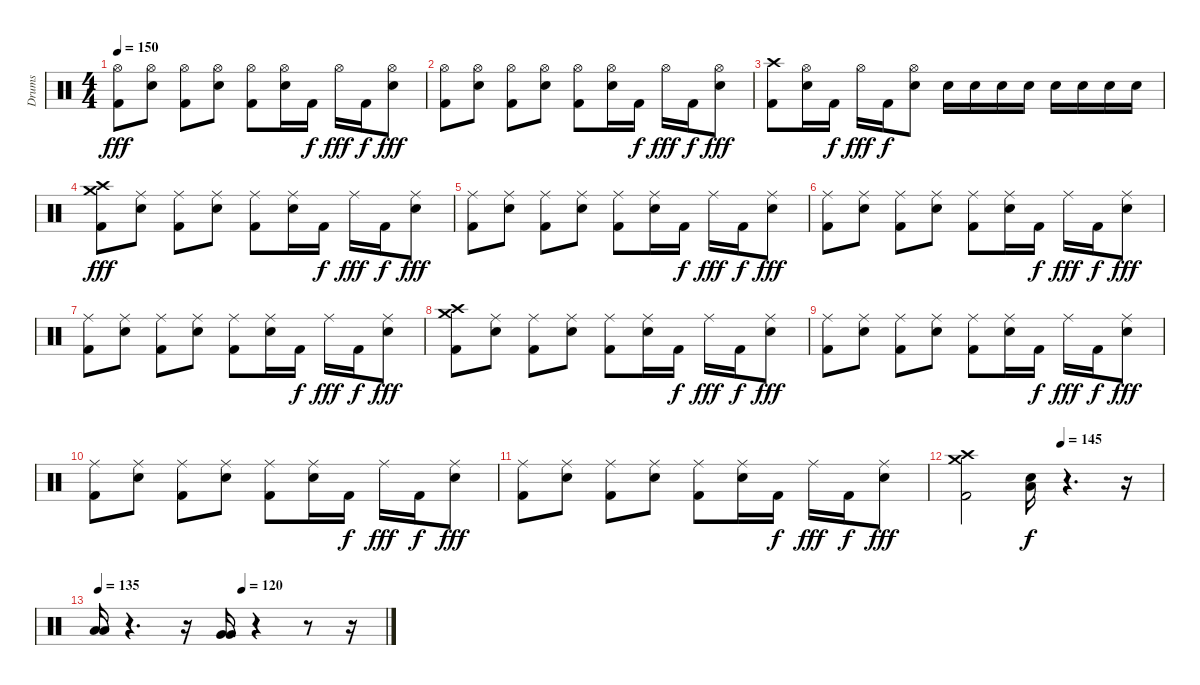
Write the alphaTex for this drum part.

\track ("Drums" "Drums") {instrument percussion}
\staff {score}
\articulation defaults
\ts (4 4)
\tempo 150
\clef neutral
\ks c
("Hi-Hat (open)" "Kick (hit) 2").8{dy fff} ("Hi-Hat (open)" "Electric Snare (hit)").8 ("Hi-Hat (open)" "Kick (hit) 2").8 ("Hi-Hat (open)" "Electric Snare (hit)").8 ("Hi-Hat (open)" "Kick (hit) 2").8 ("Hi-Hat (open)" "Electric Snare (hit)").16 "Kick (hit) 2".16{dy f} "Hi-Hat (open)".16{dy fff} "Kick (hit) 2".16{dy f} ("Hi-Hat (open)" "Electric Snare (hit)").8{dy fff} |
("Hi-Hat (open)" "Kick (hit) 2").8 ("Hi-Hat (open)" "Electric Snare (hit)").8 ("Hi-Hat (open)" "Kick (hit) 2").8 ("Hi-Hat (open)" "Electric Snare (hit)").8 ("Hi-Hat (open)" "Kick (hit) 2").8 ("Hi-Hat (open)" "Electric Snare (hit)").16 "Kick (hit) 2".16{dy f} "Hi-Hat (open)".16{dy fff} "Kick (hit) 2".16{dy f} ("Hi-Hat (open)" "Electric Snare (hit)").8{dy fff} |
("Crash high (hit)" "Kick (hit) 2").8 ("Hi-Hat (open)" "Electric Snare (hit)").16 "Kick (hit) 2".16{dy f} "Hi-Hat (open)".16{dy fff} "Kick (hit) 2".16{dy f} ("Hi-Hat (open)" "Electric Snare (hit)").8 "Electric Snare (hit)".16 "Electric Snare (hit)".16 "Electric Snare (hit)".16 "Electric Snare (hit)".16 "Electric Snare (hit)".16 "Electric Snare (hit)".16 "Electric Snare (hit)".16 "Electric Snare (hit)".16 |
("Crash high (hit)" "Crash medium (hit)" "Kick (hit) 2").8{dy fff} ("Ride (middle)" "Electric Snare (hit)").8 ("Ride (middle)" "Kick (hit) 2").8 ("Ride (middle)" "Electric Snare (hit)").8 ("Ride (middle)" "Kick (hit) 2").8 ("Ride (middle)" "Electric Snare (hit)").16 "Kick (hit) 2".16{dy f} "Ride (middle)".16{dy fff} "Kick (hit) 2".16{dy f} ("Ride (middle)" "Electric Snare (hit)").8{dy fff} |
("Ride (middle)" "Kick (hit) 2").8 ("Ride (middle)" "Electric Snare (hit)").8 ("Ride (middle)" "Kick (hit) 2").8 ("Ride (middle)" "Electric Snare (hit)").8 ("Ride (middle)" "Kick (hit) 2").8 ("Ride (middle)" "Electric Snare (hit)").16 "Kick (hit) 2".16{dy f} "Ride (middle)".16{dy fff} "Kick (hit) 2".16{dy f} ("Ride (middle)" "Electric Snare (hit)").8{dy fff} |
("Ride (middle)" "Kick (hit) 2").8 ("Ride (middle)" "Electric Snare (hit)").8 ("Ride (middle)" "Kick (hit) 2").8 ("Ride (middle)" "Electric Snare (hit)").8 ("Ride (middle)" "Kick (hit) 2").8 ("Ride (middle)" "Electric Snare (hit)").16 "Kick (hit) 2".16{dy f} "Ride (middle)".16{dy fff} "Kick (hit) 2".16{dy f} ("Ride (middle)" "Electric Snare (hit)").8{dy fff} |
("Ride (middle)" "Kick (hit) 2").8 ("Ride (middle)" "Electric Snare (hit)").8 ("Ride (middle)" "Kick (hit) 2").8 ("Ride (middle)" "Electric Snare (hit)").8 ("Ride (middle)" "Kick (hit) 2").8 ("Ride (middle)" "Electric Snare (hit)").16 "Kick (hit) 2".16{dy f} "Ride (middle)".16{dy fff} "Kick (hit) 2".16{dy f} ("Ride (middle)" "Electric Snare (hit)").8{dy fff} |
("Crash high (hit)" "Crash medium (hit)" "Kick (hit) 2").8 ("Ride (middle)" "Electric Snare (hit)").8 ("Ride (middle)" "Kick (hit) 2").8 ("Ride (middle)" "Electric Snare (hit)").8 ("Ride (middle)" "Kick (hit) 2").8 ("Ride (middle)" "Electric Snare (hit)").16 "Kick (hit) 2".16{dy f} "Ride (middle)".16{dy fff} "Kick (hit) 2".16{dy f} ("Ride (middle)" "Electric Snare (hit)").8{dy fff} |
("Ride (middle)" "Kick (hit) 2").8 ("Ride (middle)" "Electric Snare (hit)").8 ("Ride (middle)" "Kick (hit) 2").8 ("Ride (middle)" "Electric Snare (hit)").8 ("Ride (middle)" "Kick (hit) 2").8 ("Ride (middle)" "Electric Snare (hit)").16 "Kick (hit) 2".16{dy f} "Ride (middle)".16{dy fff} "Kick (hit) 2".16{dy f} ("Ride (middle)" "Electric Snare (hit)").8{dy fff} |
("Ride (middle)" "Kick (hit) 2").8 ("Ride (middle)" "Electric Snare (hit)").8 ("Ride (middle)" "Kick (hit) 2").8 ("Ride (middle)" "Electric Snare (hit)").8 ("Ride (middle)" "Kick (hit) 2").8 ("Ride (middle)" "Electric Snare (hit)").16 "Kick (hit) 2".16{dy f} "Ride (middle)".16{dy fff} "Kick (hit) 2".16{dy f} ("Ride (middle)" "Electric Snare (hit)").8{dy fff} |
("Ride (middle)" "Kick (hit) 2").8 ("Ride (middle)" "Electric Snare (hit)").8 ("Ride (middle)" "Kick (hit) 2").8 ("Ride (middle)" "Electric Snare (hit)").8 ("Ride (middle)" "Kick (hit) 2").8 ("Ride (middle)" "Electric Snare (hit)").16 "Kick (hit) 2".16{dy f} "Ride (middle)".16{dy fff} "Kick (hit) 2".16{dy f} ("Ride (middle)" "Electric Snare (hit)").8{dy fff} |
\tempo (145 0.5)
("Crash high (hit)" "Crash medium (hit)" "Kick (hit) 2").2 ("Low Tom (hit)" "Electric Snare (hit)").16{dy f} r.4{d} r.16 |
\tempo 135
\tempo (120 0.5)
("Low Tom (hit)" "Low Tom (hit)").16 r.4{d} r.16 ("Very Low Tom (hit)" "Very Low Tom (hit)").16 r.4 r.8 r.16
